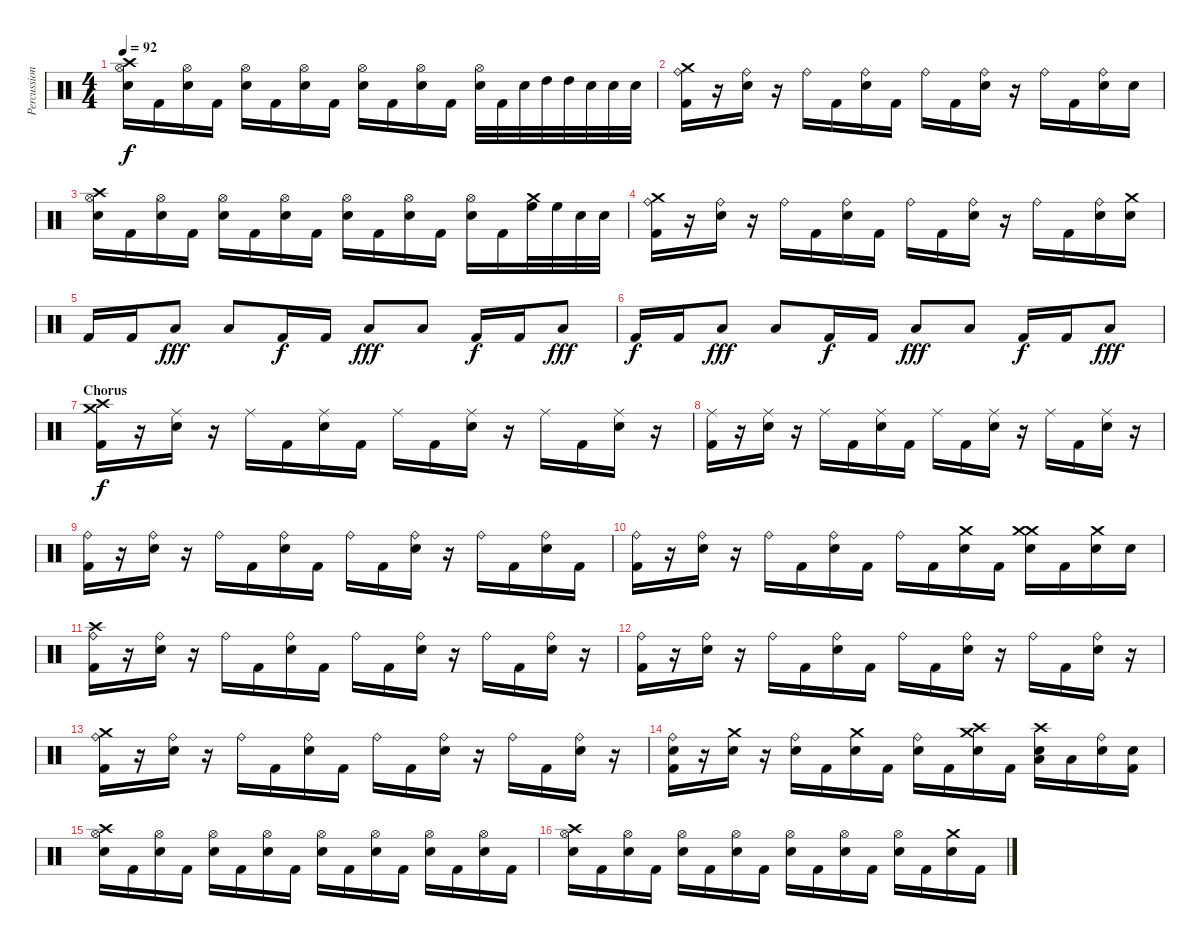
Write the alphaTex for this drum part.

\track ("Percussion" "Percussion") {instrument percussion}
\staff {score}
\articulation defaults
\ts (4 4)
\tempo 92
\clef neutral
\ks c
("Hi-Hat (open)" "Crash high (hit)" "Snare (hit) 2").16{dy f} "Kick (hit) 2".16 ("Hi-Hat (open)" "Snare (hit) 2").16 "Kick (hit) 2".16 ("Hi-Hat (open)" "Snare (hit) 2").16 "Kick (hit) 2".16 ("Hi-Hat (open)" "Snare (hit) 2").16 "Kick (hit) 2".16 ("Hi-Hat (open)" "Snare (hit) 2").16 "Kick (hit) 2".16 ("Hi-Hat (open)" "Snare (hit) 2").16 "Kick (hit) 2".16 ("Hi-Hat (open)" "Snare (hit) 2").32 "Kick (hit) 2".32 "Snare (hit) 2".32 "High Tom (hit)".32 "High Tom (hit)".32 "Snare (hit) 2".32 "Snare (hit) 2".32 "Snare (hit) 2".32 |
("Ride (bell)" "Crash medium (hit)" "Kick (hit) 2").16 r.16 ("Ride (bell)" "Snare (hit) 2").16 r.16 "Ride (bell)".16 "Kick (hit) 2".16 ("Ride (bell)" "Snare (hit) 2").16 "Kick (hit) 2".16 "Ride (bell)".16 "Kick (hit) 2".16 ("Ride (bell)" "Snare (hit) 2").16 r.16 "Ride (bell)".16 "Kick (hit) 2".16 ("Ride (bell)" "Snare (hit) 2").16 "Snare (hit) 2".16 |
("Hi-Hat (open)" "Crash high (hit)" "Snare (hit) 2").16 "Kick (hit) 2".16 ("Hi-Hat (open)" "Snare (hit) 2").16 "Kick (hit) 2".16 ("Hi-Hat (open)" "Snare (hit) 2").16 "Kick (hit) 2".16 ("Hi-Hat (open)" "Snare (hit) 2").16 "Kick (hit) 2".16 ("Hi-Hat (open)" "Snare (hit) 2").16 "Kick (hit) 2".16 ("Hi-Hat (open)" "Snare (hit) 2").16 "Kick (hit) 2".16 ("Hi-Hat (open)" "Snare (hit) 2").16 "Kick (hit) 2".16 ("Crash medium (hit)" "High Floor Tom (hit)").32 "High Floor Tom (hit)".32 "Snare (hit) 2".32 "Snare (hit) 2".32 |
("Ride (bell)" "Crash medium (hit)" "Kick (hit) 2").16 r.16 ("Ride (bell)" "Snare (hit) 2").16 r.16 "Ride (bell)".16 "Kick (hit) 2".16 ("Ride (bell)" "Snare (hit) 2").16 "Kick (hit) 2".16 "Ride (bell)".16 "Kick (hit) 2".16 ("Ride (bell)" "Snare (hit) 2").16 r.16 "Ride (bell)".16 "Kick (hit) 2".16 ("Ride (bell)" "Snare (hit) 2").16 ("Crash medium (hit)" "Snare (hit) 2").16 |
"Kick (hit) 2".16 "Kick (hit) 2".16 "Low Tom (hit)".8{dy fff} "Low Tom (hit)".8 "Kick (hit) 2".16{dy f} "Kick (hit) 2".16 "Low Tom (hit)".8{dy fff} "Low Tom (hit)".8 "Kick (hit) 2".16{dy f} "Kick (hit) 2".16 "Low Tom (hit)".8{dy fff} |
"Kick (hit) 2".16{dy f} "Kick (hit) 2".16 "Low Tom (hit)".8{dy fff} "Low Tom (hit)".8 "Kick (hit) 2".16{dy f} "Kick (hit) 2".16 "Low Tom (hit)".8{dy fff} "Low Tom (hit)".8 "Kick (hit) 2".16{dy f} "Kick (hit) 2".16 "Low Tom (hit)".8{dy fff} |
\section ("" "Chorus")
("Crash high (hit)" "Crash medium (hit)" "Kick (hit) 2").16{dy f} r.16 ("Ride (middle)" "Snare (hit) 2").16 r.16 "Ride (middle)".16 "Kick (hit) 2".16 ("Ride (middle)" "Snare (hit) 2").16 "Kick (hit) 2".16 "Ride (middle)".16 "Kick (hit) 2".16 ("Ride (middle)" "Snare (hit) 2").16 r.16 "Ride (middle)".16 "Kick (hit) 2".16 ("Ride (middle)" "Snare (hit) 2").16 r.16 |
("Ride (middle)" "Kick (hit) 2").16 r.16 ("Ride (middle)" "Snare (hit) 2").16 r.16 "Ride (middle)".16 "Kick (hit) 2".16 ("Ride (middle)" "Snare (hit) 2").16 "Kick (hit) 2".16 "Ride (middle)".16 "Kick (hit) 2".16 ("Ride (middle)" "Snare (hit) 2").16 r.16 "Ride (middle)".16 "Kick (hit) 2".16 ("Ride (middle)" "Snare (hit) 2").16 r.16 |
("Ride (bell)" "Kick (hit) 2").16 r.16 ("Ride (bell)" "Snare (hit) 2").16 r.16 "Ride (bell)".16 "Kick (hit) 2".16 ("Ride (bell)" "Snare (hit) 2").16 "Kick (hit) 2".16 "Ride (bell)".16 "Kick (hit) 2".16 ("Ride (bell)" "Snare (hit) 2").16 r.16 "Ride (bell)".16 "Kick (hit) 2".16 ("Ride (bell)" "Snare (hit) 2").16 "Kick (hit) 2".16 |
("Ride (bell)" "Kick (hit) 2").16 r.16 ("Ride (bell)" "Snare (hit) 2").16 r.16 "Ride (bell)".16 "Kick (hit) 2".16 ("Ride (bell)" "Snare (hit) 2").16 "Kick (hit) 2".16 "Ride (bell)".16 "Kick (hit) 2".16 ("Crash medium (hit)" "Snare (hit) 2").16 "Kick (hit) 2".16 ("Crash medium (hit)" "Crash medium (hit)" "Snare (hit) 2").16 "Kick (hit) 2".16 ("Crash medium (hit)" "Snare (hit) 2").16 "Snare (hit) 2".16 |
("Ride (bell)" "Crash high (hit)" "Kick (hit) 2").16 r.16 ("Ride (bell)" "Snare (hit) 2").16 r.16 "Ride (bell)".16 "Kick (hit) 2".16 ("Ride (bell)" "Snare (hit) 2").16 "Kick (hit) 2".16 "Ride (bell)".16 "Kick (hit) 2".16 ("Ride (bell)" "Snare (hit) 2").16 r.16 "Ride (bell)".16 "Kick (hit) 2".16 ("Ride (bell)" "Snare (hit) 2").16 r.16 |
("Ride (bell)" "Kick (hit) 2").16 r.16 ("Ride (bell)" "Snare (hit) 2").16 r.16 "Ride (bell)".16 "Kick (hit) 2".16 ("Ride (bell)" "Snare (hit) 2").16 "Kick (hit) 2".16 "Ride (bell)".16 "Kick (hit) 2".16 ("Ride (bell)" "Snare (hit) 2").16 r.16 "Ride (bell)".16 "Kick (hit) 2".16 ("Ride (bell)" "Snare (hit) 2").16 r.16 |
("Ride (bell)" "Crash medium (hit)" "Kick (hit) 2").16 r.16 ("Ride (bell)" "Snare (hit) 2").16 r.16 "Ride (bell)".16 "Kick (hit) 2".16 ("Ride (bell)" "Snare (hit) 2").16 "Kick (hit) 2".16 "Ride (bell)".16 "Kick (hit) 2".16 ("Ride (bell)" "Snare (hit) 2").16 r.16 "Ride (bell)".16 "Kick (hit) 2".16 ("Ride (bell)" "Snare (hit) 2").16 r.16 |
("Ride (bell)" "Snare (hit) 2" "Kick (hit) 2").16 r.16 ("Crash medium (hit)" "Snare (hit) 2").16 r.16 ("Ride (bell)" "Snare (hit) 2").16 "Kick (hit) 2".16 ("Crash medium (hit)" "Snare (hit) 2").16 "Kick (hit) 2".16 ("Ride (bell)" "Snare (hit) 2").16 "Kick (hit) 2".16 ("Crash medium (hit)" "Crash high (hit)" "Snare (hit) 2").16 "Kick (hit) 2".16 ("Crash high (hit)" "Snare (hit) 2" "Low Tom (hit)").16 "Low Tom (hit)".16 ("Ride (bell)" "Snare (hit) 2").16 ("Snare (hit)" "Kick (hit) 2").16 |
("Hi-Hat (open)" "Crash high (hit)" "Snare (hit) 2").16 "Kick (hit) 2".16 ("Hi-Hat (open)" "Snare (hit) 2").16 "Kick (hit) 2".16 ("Hi-Hat (open)" "Snare (hit) 2").16 "Kick (hit) 2".16 ("Hi-Hat (open)" "Snare (hit) 2").16 "Kick (hit) 2".16 ("Hi-Hat (open)" "Snare (hit) 2").16 "Kick (hit) 2".16 ("Hi-Hat (open)" "Snare (hit) 2").16 "Kick (hit) 2".16 ("Hi-Hat (open)" "Snare (hit) 2").16 "Kick (hit) 2".16 ("Hi-Hat (open)" "Snare (hit) 2").16 "Kick (hit) 2".16 |
("Hi-Hat (open)" "Crash high (hit)" "Snare (hit) 2").16 "Kick (hit) 2".16 ("Hi-Hat (open)" "Snare (hit) 2").16 "Kick (hit) 2".16 ("Hi-Hat (open)" "Snare (hit) 2").16 "Kick (hit) 2".16 ("Hi-Hat (open)" "Snare (hit) 2").16 "Kick (hit) 2".16 ("Hi-Hat (open)" "Snare (hit) 2").16 "Kick (hit) 2".16 ("Hi-Hat (open)" "Snare (hit) 2").16 "Kick (hit) 2".16 ("Hi-Hat (open)" "Snare (hit) 2").16 "Kick (hit) 2".16 ("Crash medium (hit)" "Snare (hit) 2").16 "Kick (hit) 2".16
